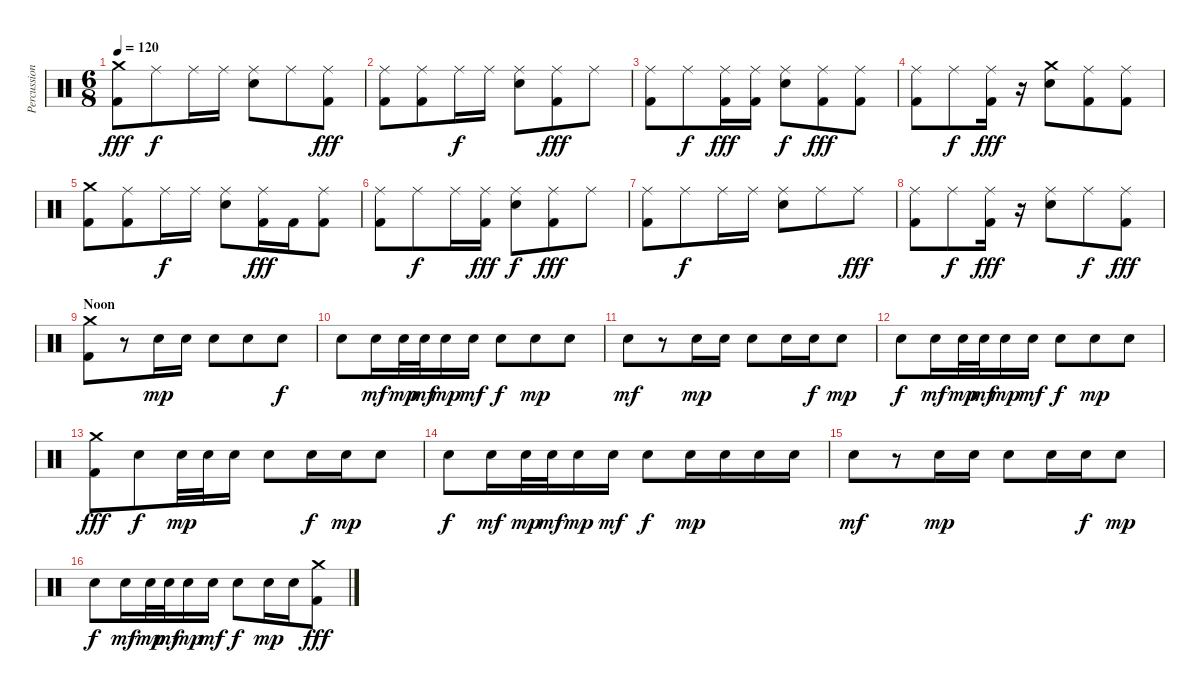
\track ("Percussion" "Percussion") {instrument percussion}
\staff {score}
\articulation defaults
\ts (6 8)
\tempo 120
\clef neutral
\ks c
("Crash medium (hit)" "Kick (hit) 2").8{dy fff} "Ride (middle)".8{dy f} "Ride (middle)".16 "Ride (middle)".16 ("Ride (middle)" "Electric Snare (hit)").8 "Ride (middle)".8 ("Ride (middle)" "Kick (hit) 2").8{dy fff} |
("Ride (middle)" "Kick (hit) 2").8 ("Ride (middle)" "Kick (hit) 2").8 "Ride (middle)".16{dy f} "Ride (middle)".16 ("Ride (middle)" "Electric Snare (hit)").8 ("Ride (middle)" "Kick (hit) 2").8{dy fff} "Ride (middle)".8 |
("Ride (middle)" "Kick (hit) 2").8 "Ride (middle)".8{dy f} ("Ride (middle)" "Kick (hit) 2").16{dy fff} ("Ride (middle)" "Kick (hit) 2").16 ("Ride (middle)" "Electric Snare (hit)").8{dy f} ("Ride (middle)" "Kick (hit) 2").8{dy fff} ("Ride (middle)" "Kick (hit) 2").8 |
("Ride (middle)" "Kick (hit) 2").8 "Ride (middle)".8{dy f} ("Ride (middle)" "Kick (hit) 2").16{dy fff} r.16 ("Crash medium (hit)" "Electric Snare (hit)").8 ("Ride (middle)" "Kick (hit) 2").8 ("Ride (middle)" "Kick (hit) 2").8 |
("Crash medium (hit)" "Kick (hit) 2").8 ("Ride (middle)" "Kick (hit) 2").8 "Ride (middle)".16{dy f} "Ride (middle)".16 ("Ride (middle)" "Electric Snare (hit)").8 ("Ride (middle)" "Kick (hit) 2").16{dy fff} "Kick (hit) 2".16 ("Ride (middle)" "Kick (hit) 2").8 |
("Ride (middle)" "Kick (hit) 2").8 "Ride (middle)".8{dy f} "Ride (middle)".16 ("Ride (middle)" "Kick (hit) 2").16{dy fff} ("Ride (middle)" "Electric Snare (hit)").8{dy f} ("Ride (middle)" "Kick (hit) 2").8{dy fff} "Ride (middle)".8 |
("Ride (middle)" "Kick (hit) 2").8 "Ride (middle)".8{dy f} "Ride (middle)".16 "Ride (middle)".16 ("Ride (middle)" "Electric Snare (hit)").8 "Ride (middle)".8 "Ride (middle)".8{dy fff} |
("Ride (middle)" "Kick (hit) 2").8 "Ride (middle)".8{dy f} ("Ride (middle)" "Kick (hit) 2").16{dy fff} r.16 ("Ride (middle)" "Electric Snare (hit)").8 "Ride (middle)".8{dy f} ("Ride (middle)" "Kick (hit) 2").8{dy fff} |
\section ("" "Noon")
("Crash medium (hit)" "Kick (hit) 2").8 r.8 "Snare (hit) 2".16{dy mp} "Snare (hit) 2".16 "Snare (hit) 2".8 "Snare (hit) 2".8 "Snare (hit) 2".8{dy f} |
"Snare (hit) 2".8 "Snare (hit) 2".16{dy mf} "Snare (hit) 2".32{dy mp} "Snare (hit) 2".32{dy mf} "Snare (hit) 2".16{dy mp} "Snare (hit) 2".16{dy mf} "Snare (hit) 2".8{dy f} "Snare (hit) 2".8{dy mp} "Snare (hit) 2".8 |
"Snare (hit) 2".8{dy mf} r.8 "Snare (hit) 2".16{dy mp} "Snare (hit) 2".16 "Snare (hit) 2".8 "Snare (hit) 2".16 "Snare (hit) 2".16{dy f} "Snare (hit) 2".8{dy mp} |
"Snare (hit) 2".8{dy f} "Snare (hit) 2".16{dy mf} "Snare (hit) 2".32{dy mp} "Snare (hit) 2".32{dy mf} "Snare (hit) 2".16{dy mp} "Snare (hit) 2".16{dy mf} "Snare (hit) 2".8{dy f} "Snare (hit) 2".8{dy mp} "Snare (hit) 2".8 |
("Crash medium (hit)" "Kick (hit) 2").8{dy fff} "Snare (hit) 2".8{dy f} "Snare (hit) 2".32{dy mp} "Snare (hit) 2".32 "Snare (hit) 2".16 "Snare (hit) 2".8 "Snare (hit) 2".16{dy f} "Snare (hit) 2".16{dy mp} "Snare (hit) 2".8 |
"Snare (hit) 2".8{dy f} "Snare (hit) 2".16{dy mf} "Snare (hit) 2".32{dy mp} "Snare (hit) 2".32{dy mf} "Snare (hit) 2".16{dy mp} "Snare (hit) 2".16{dy mf} "Snare (hit) 2".8{dy f} "Snare (hit) 2".16{dy mp} "Snare (hit) 2".16 "Snare (hit) 2".16 "Snare (hit) 2".16 |
"Snare (hit) 2".8{dy mf} r.8 "Snare (hit) 2".16{dy mp} "Snare (hit) 2".16 "Snare (hit) 2".8 "Snare (hit) 2".16 "Snare (hit) 2".16{dy f} "Snare (hit) 2".8{dy mp} |
"Snare (hit) 2".8{dy f} "Snare (hit) 2".16{dy mf} "Snare (hit) 2".32{dy mp} "Snare (hit) 2".32{dy mf} "Snare (hit) 2".16{dy mp} "Snare (hit) 2".16{dy mf} "Snare (hit) 2".8{dy f} "Snare (hit) 2".16{dy mp} "Snare (hit) 2".16 ("Crash medium (hit)" "Kick (hit) 2").8{dy fff}
